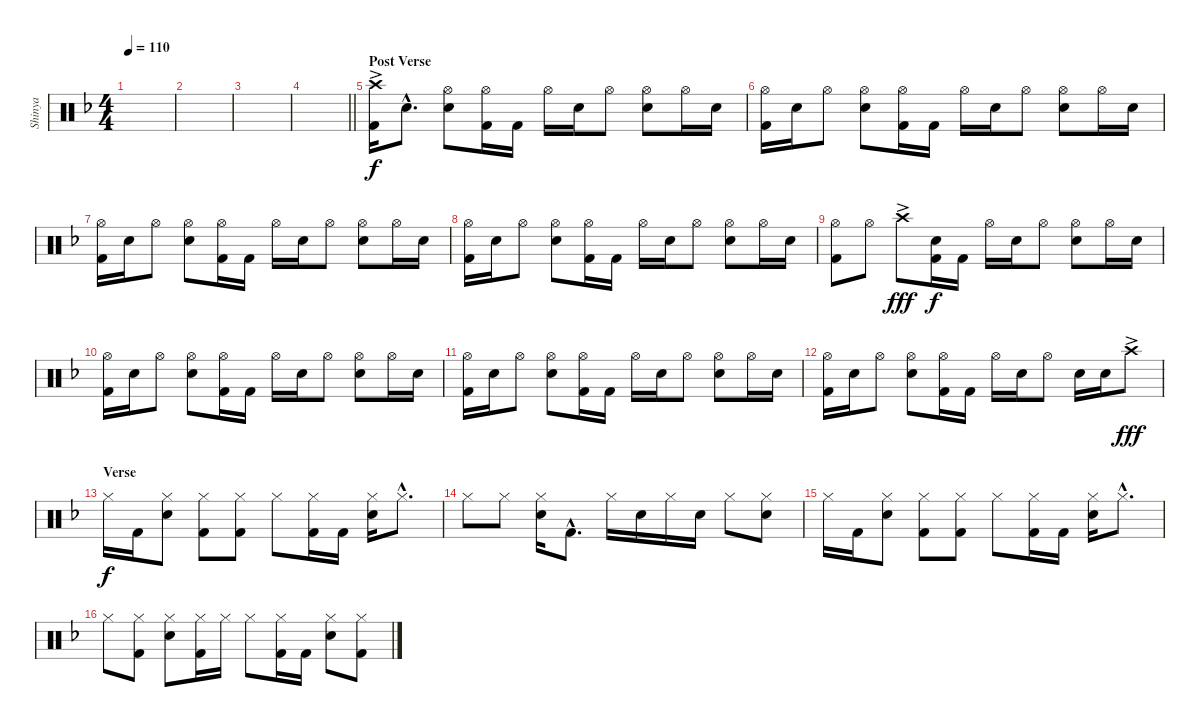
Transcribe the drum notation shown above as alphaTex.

\track ("Shinya" "Shinya") {instrument percussion}
\staff {score}
\articulation defaults
\ts (4 4)
\tempo 110
\clef neutral
\ks f
|
|
|
\barLineRight lightlight
|
\section ("" "Post Verse")
("Crash high (hit)"{ac} "Kick (hit) 2").16{volume 15} "Snare (hit) 2"{hac}.8{d dy f} ("Hi-Hat (open)" "Snare (hit) 2").8 ("Hi-Hat (open)" "Kick (hit) 2").16 "Kick (hit) 2".16 "Hi-Hat (open)".16 "Snare (hit) 2".16 "Hi-Hat (open)".8 ("Hi-Hat (open)" "Snare (hit) 2").8 "Hi-Hat (open)".16 "Snare (hit) 2".16 |
("Hi-Hat (open)" "Kick (hit) 2").16 "Snare (hit) 2".16 "Hi-Hat (open)".8 ("Hi-Hat (open)" "Snare (hit) 2").8 ("Hi-Hat (open)" "Kick (hit) 2").16 "Kick (hit) 2".16 "Hi-Hat (open)".16 "Snare (hit) 2".16 "Hi-Hat (open)".8 ("Hi-Hat (open)" "Snare (hit) 2").8 "Hi-Hat (open)".16 "Snare (hit) 2".16 |
("Hi-Hat (open)" "Kick (hit) 2").16 "Snare (hit) 2".16 "Hi-Hat (open)".8 ("Hi-Hat (open)" "Snare (hit) 2").8 ("Hi-Hat (open)" "Kick (hit) 2").16 "Kick (hit) 2".16 "Hi-Hat (open)".16 "Snare (hit) 2".16 "Hi-Hat (open)".8 ("Hi-Hat (open)" "Snare (hit) 2").8 "Hi-Hat (open)".16 "Snare (hit) 2".16 |
("Hi-Hat (open)" "Kick (hit) 2").16 "Snare (hit) 2".16 "Hi-Hat (open)".8 ("Hi-Hat (open)" "Snare (hit) 2").8 ("Hi-Hat (open)" "Kick (hit) 2").16 "Kick (hit) 2".16 "Hi-Hat (open)".16 "Snare (hit) 2".16 "Hi-Hat (open)".8 ("Hi-Hat (open)" "Snare (hit) 2").8 "Hi-Hat (open)".16 "Snare (hit) 2".16 |
("Hi-Hat (open)" "Kick (hit) 2").8 "Hi-Hat (open)".8 "Crash high (hit)"{ac}.8{dy fff} ("Snare (hit) 2" "Kick (hit) 2").16{dy f} "Kick (hit) 2".16 "Hi-Hat (open)".16 "Snare (hit) 2".16 "Hi-Hat (open)".8 ("Hi-Hat (open)" "Snare (hit) 2").8 "Hi-Hat (open)".16 "Snare (hit) 2".16 |
("Hi-Hat (open)" "Kick (hit) 2").16 "Snare (hit) 2".16 "Hi-Hat (open)".8 ("Hi-Hat (open)" "Snare (hit) 2").8 ("Hi-Hat (open)" "Kick (hit) 2").16 "Kick (hit) 2".16 "Hi-Hat (open)".16 "Snare (hit) 2".16 "Hi-Hat (open)".8 ("Hi-Hat (open)" "Snare (hit) 2").8 "Hi-Hat (open)".16 "Snare (hit) 2".16 |
("Hi-Hat (open)" "Kick (hit) 2").16 "Snare (hit) 2".16 "Hi-Hat (open)".8 ("Hi-Hat (open)" "Snare (hit) 2").8 ("Hi-Hat (open)" "Kick (hit) 2").16 "Kick (hit) 2".16 "Hi-Hat (open)".16 "Snare (hit) 2".16 "Hi-Hat (open)".8 ("Hi-Hat (open)" "Snare (hit) 2").8 "Hi-Hat (open)".16 "Snare (hit) 2".16 |
("Hi-Hat (open)" "Kick (hit) 2").16 "Snare (hit) 2".16 "Hi-Hat (open)".8 ("Hi-Hat (open)" "Snare (hit) 2").8 ("Hi-Hat (open)" "Kick (hit) 2").16 "Kick (hit) 2".16 "Hi-Hat (open)".16 "Snare (hit) 2".16 "Hi-Hat (open)".8 "Snare (hit) 2".16 "Snare (hit) 2".16 "Crash high (hit)"{ac}.8{dy fff} |
\section ("" "Verse")
"Hi-Hat (closed)".16{dy f} "Kick (hit) 2".16 ("Hi-Hat (closed)" "Snare (hit) 2").8 ("Hi-Hat (closed)" "Kick (hit) 2").8 ("Hi-Hat (closed)" "Kick (hit) 2").8 "Hi-Hat (closed)".8 ("Hi-Hat (closed)" "Kick (hit) 2").16 "Kick (hit) 2".16 ("Hi-Hat (closed)" "Snare (hit) 2").16 "Hi-Hat (closed)"{hac}.8{d} |
"Hi-Hat (closed)".8 "Hi-Hat (closed)".8 ("Hi-Hat (closed)" "Snare (hit) 2").16 "Kick (hit) 2"{hac}.8{d} "Hi-Hat (closed)".16 "Snare (hit) 2".16 "Hi-Hat (closed)".16 "Snare (hit) 2".16 "Hi-Hat (closed)".8 ("Hi-Hat (closed)" "Snare (hit) 2").8 |
"Hi-Hat (closed)".16 "Kick (hit) 2".16 ("Hi-Hat (closed)" "Snare (hit) 2").8 ("Hi-Hat (closed)" "Kick (hit) 2").8 ("Hi-Hat (closed)" "Kick (hit) 2").8 "Hi-Hat (closed)".8 ("Hi-Hat (closed)" "Kick (hit) 2").16 "Kick (hit) 2".16 ("Hi-Hat (closed)" "Snare (hit) 2").16 "Hi-Hat (closed)"{hac}.8{d} |
"Hi-Hat (closed)".8 ("Hi-Hat (closed)" "Kick (hit) 2").8 ("Hi-Hat (closed)" "Snare (hit) 2").8 ("Hi-Hat (closed)" "Kick (hit) 2").16 "Hi-Hat (closed)".16 "Hi-Hat (closed)".8 ("Hi-Hat (closed)" "Kick (hit) 2").16 "Kick (hit) 2".16 ("Hi-Hat (closed)" "Snare (hit) 2").8 ("Hi-Hat (closed)" "Kick (hit) 2").8
